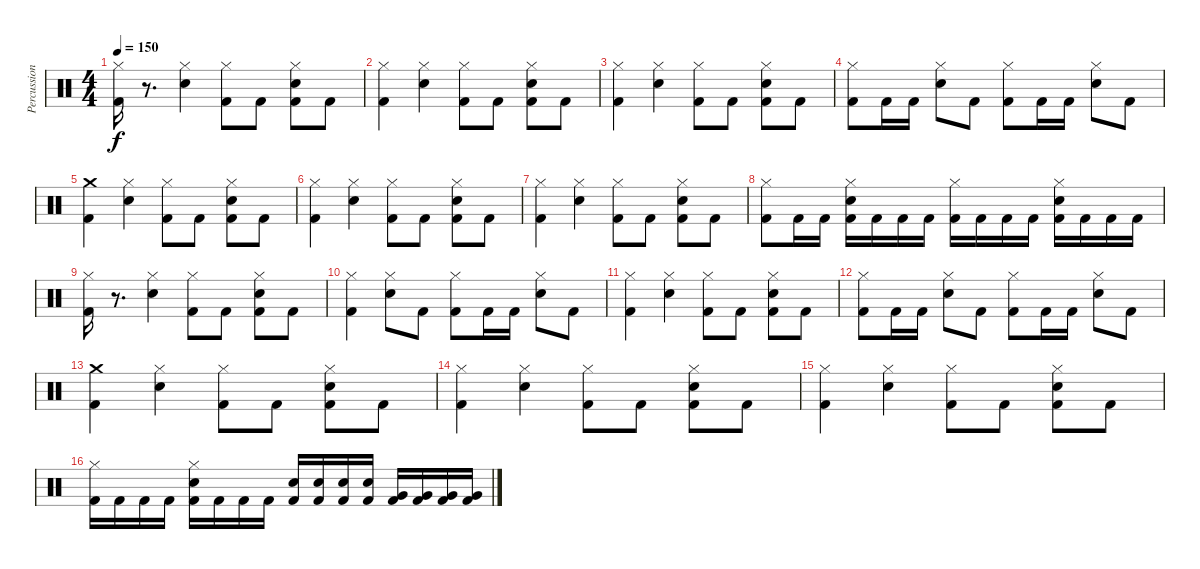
\track ("Percussions" "Percussion") {instrument percussion}
\staff {score}
\articulation defaults
\ts (4 4)
\tempo 150
\clef neutral
\ks c
("Hi-Hat (closed)" "Kick (hit) 2").16{dy f} r.8{d} ("Electric Snare (hit)" "Hi-Hat (closed)").4 ("Hi-Hat (closed)" "Kick (hit) 2").8 "Kick (hit) 2".8 ("Electric Snare (hit)" "Hi-Hat (closed)" "Kick (hit) 2").8 "Kick (hit) 2".8 |
("Hi-Hat (closed)" "Kick (hit) 2").4 ("Electric Snare (hit)" "Hi-Hat (closed)").4 ("Hi-Hat (closed)" "Kick (hit) 2").8 "Kick (hit) 2".8 ("Electric Snare (hit)" "Hi-Hat (closed)" "Kick (hit) 2").8 "Kick (hit) 2".8 |
("Hi-Hat (closed)" "Kick (hit) 2").4 ("Electric Snare (hit)" "Hi-Hat (closed)").4 ("Hi-Hat (closed)" "Kick (hit) 2").8 "Kick (hit) 2".8 ("Electric Snare (hit)" "Hi-Hat (closed)" "Kick (hit) 2").8 "Kick (hit) 2".8 |
("Hi-Hat (closed)" "Kick (hit) 2").8 "Kick (hit) 2".16 "Kick (hit) 2".16 ("Electric Snare (hit)" "Hi-Hat (closed)").8 "Kick (hit) 2".8 ("Hi-Hat (closed)" "Kick (hit) 2").8 "Kick (hit) 2".16 "Kick (hit) 2".16 ("Electric Snare (hit)" "Hi-Hat (closed)").8 "Kick (hit) 2".8 |
("Crash medium (hit)" "Kick (hit) 2").4 ("Electric Snare (hit)" "Hi-Hat (closed)").4 ("Hi-Hat (closed)" "Kick (hit) 2").8 "Kick (hit) 2".8 ("Electric Snare (hit)" "Hi-Hat (closed)" "Kick (hit) 2").8 "Kick (hit) 2".8 |
("Hi-Hat (closed)" "Kick (hit) 2").4 ("Electric Snare (hit)" "Hi-Hat (closed)").4 ("Hi-Hat (closed)" "Kick (hit) 2").8 "Kick (hit) 2".8 ("Electric Snare (hit)" "Hi-Hat (closed)" "Kick (hit) 2").8 "Kick (hit) 2".8 |
("Hi-Hat (closed)" "Kick (hit) 2").4 ("Electric Snare (hit)" "Hi-Hat (closed)").4 ("Hi-Hat (closed)" "Kick (hit) 2").8 "Kick (hit) 2".8 ("Electric Snare (hit)" "Hi-Hat (closed)" "Kick (hit) 2").8 "Kick (hit) 2".8 |
("Hi-Hat (closed)" "Kick (hit) 2").8 "Kick (hit) 2".16 "Kick (hit) 2".16 ("Electric Snare (hit)" "Hi-Hat (closed)" "Kick (hit) 2").16 "Kick (hit) 2".16 "Kick (hit) 2".16 "Kick (hit) 2".16 ("Hi-Hat (closed)" "Kick (hit) 2").16 "Kick (hit) 2".16 "Kick (hit) 2".16 "Kick (hit) 2".16 ("Electric Snare (hit)" "Hi-Hat (closed)" "Kick (hit) 2").16 "Kick (hit) 2".16 "Kick (hit) 2".16 "Kick (hit) 2".16 |
("Hi-Hat (closed)" "Kick (hit) 2").16 r.8{d} ("Electric Snare (hit)" "Hi-Hat (closed)").4 ("Hi-Hat (closed)" "Kick (hit) 2").8 "Kick (hit) 2".8 ("Electric Snare (hit)" "Hi-Hat (closed)" "Kick (hit) 2").8 "Kick (hit) 2".8 |
("Hi-Hat (closed)" "Kick (hit) 2").4 ("Electric Snare (hit)" "Hi-Hat (closed)").8 "Kick (hit) 2".8 ("Hi-Hat (closed)" "Kick (hit) 2").8 "Kick (hit) 2".16 "Kick (hit) 2".16 ("Electric Snare (hit)" "Hi-Hat (closed)").8 "Kick (hit) 2".8 |
("Hi-Hat (closed)" "Kick (hit) 2").4 ("Electric Snare (hit)" "Hi-Hat (closed)").4 ("Hi-Hat (closed)" "Kick (hit) 2").8 "Kick (hit) 2".8 ("Electric Snare (hit)" "Hi-Hat (closed)" "Kick (hit) 2").8 "Kick (hit) 2".8 |
("Hi-Hat (closed)" "Kick (hit) 2").8 "Kick (hit) 2".16 "Kick (hit) 2".16 ("Electric Snare (hit)" "Hi-Hat (closed)").8 "Kick (hit) 2".8 ("Hi-Hat (closed)" "Kick (hit) 2").8 "Kick (hit) 2".16 "Kick (hit) 2".16 ("Electric Snare (hit)" "Hi-Hat (closed)").8 "Kick (hit) 2".8 |
("Crash medium (hit)" "Kick (hit) 2").4 ("Electric Snare (hit)" "Hi-Hat (closed)").4 ("Hi-Hat (closed)" "Kick (hit) 2").8 "Kick (hit) 2".8 ("Electric Snare (hit)" "Hi-Hat (closed)" "Kick (hit) 2").8 "Kick (hit) 2".8 |
("Hi-Hat (closed)" "Kick (hit) 2").4 ("Electric Snare (hit)" "Hi-Hat (closed)").4 ("Hi-Hat (closed)" "Kick (hit) 2").8 "Kick (hit) 2".8 ("Electric Snare (hit)" "Hi-Hat (closed)" "Kick (hit) 2").8 "Kick (hit) 2".8 |
("Hi-Hat (closed)" "Kick (hit) 2").4 ("Electric Snare (hit)" "Hi-Hat (closed)").4 ("Hi-Hat (closed)" "Kick (hit) 2").8 "Kick (hit) 2".8 ("Electric Snare (hit)" "Hi-Hat (closed)" "Kick (hit) 2").8 "Kick (hit) 2".8 |
("Hi-Hat (closed)" "Kick (hit) 2").16 "Kick (hit) 2".16 "Kick (hit) 2".16 "Kick (hit) 2".16 ("Electric Snare (hit)" "Hi-Hat (closed)" "Kick (hit) 2").16 "Kick (hit) 2".16 "Kick (hit) 2".16 "Kick (hit) 2".16 ("Electric Snare (hit)" "Kick (hit) 2").16 ("Electric Snare (hit)" "Kick (hit) 2").16 ("Electric Snare (hit)" "Kick (hit) 2").16 ("Electric Snare (hit)" "Kick (hit) 2").16 ("Very Low Tom (hit)" "Kick (hit) 2").16 ("Very Low Tom (hit)" "Kick (hit) 2").16 ("Very Low Tom (hit)" "Kick (hit) 2").16 ("Very Low Tom (hit)" "Kick (hit) 2").16
